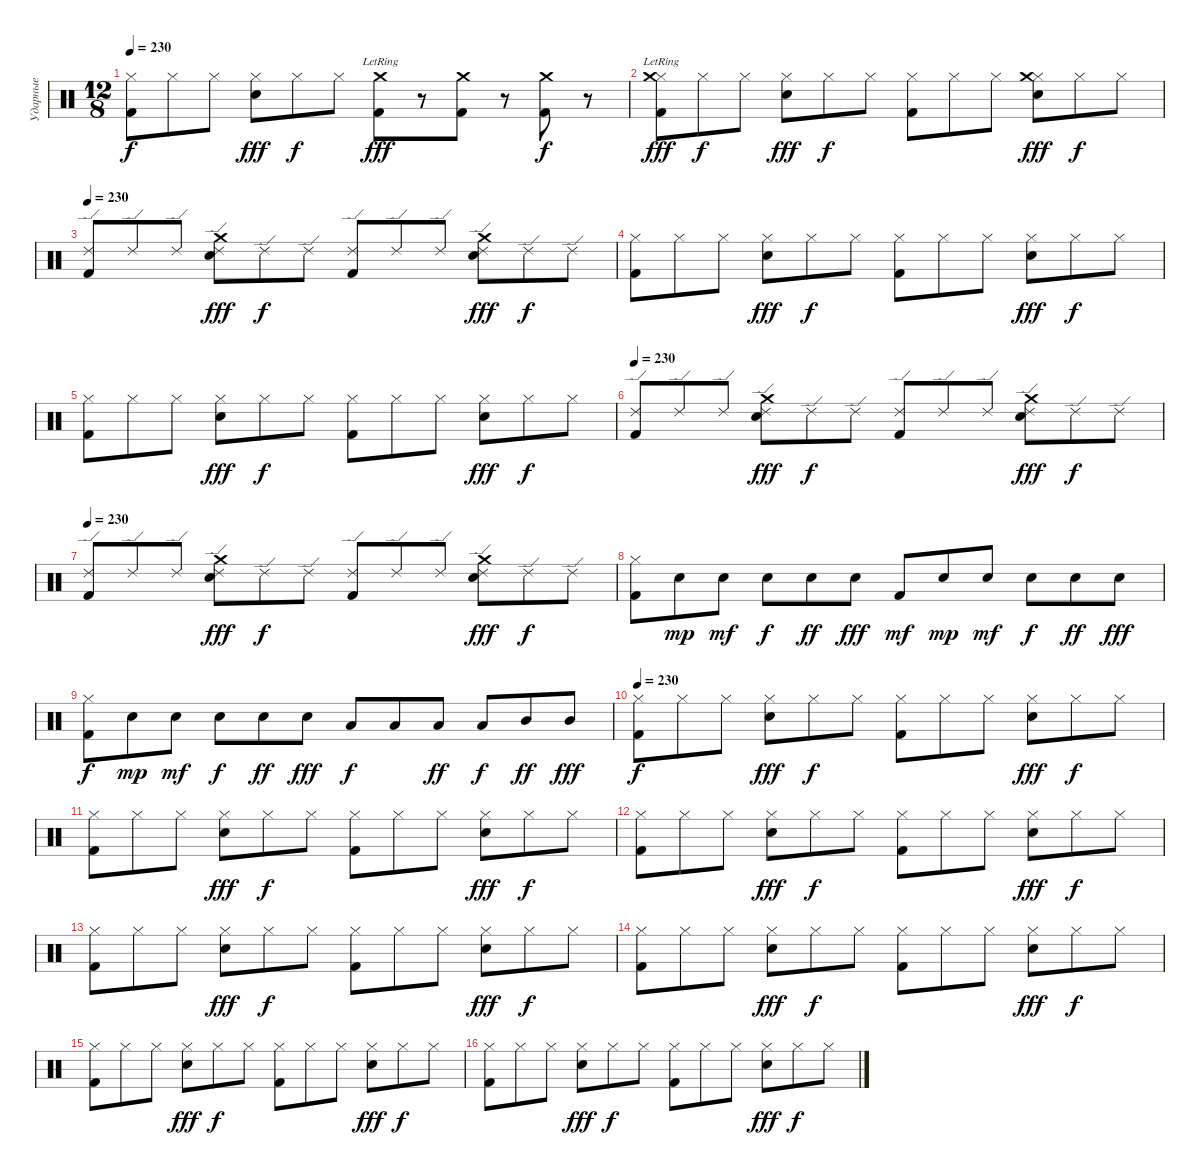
\track ("Ударные" "Ударные") {instrument percussion}
\staff {score}
\articulation defaults
\ts (12 8)
\tempo 230
\clef neutral
\ks c
("Hi-Hat (closed)" "Kick (hit) 2").8{dy f} "Hi-Hat (closed)".8 "Hi-Hat (closed)".8 ("Hi-Hat (closed)" "Snare (hit) 2").8{dy fff} "Hi-Hat (closed)".8{dy f} "Hi-Hat (closed)".8 ("Kick (hit) 2" "Crash medium (hit)"{lr}).8{dy fff} r.8 ("Kick (hit) 2" "Crash medium (hit)").8 r.8 ("Kick (hit) 2" "Crash medium (hit)").8{dy f} r.8 |
("Hi-Hat (closed)" "Crash medium (hit)"{lr} "Kick (hit) 2").8{dy fff} "Hi-Hat (closed)".8{dy f} "Hi-Hat (closed)".8 ("Hi-Hat (closed)" "Snare (hit) 2").8{dy fff} "Hi-Hat (closed)".8{dy f} "Hi-Hat (closed)".8 ("Hi-Hat (closed)" "Kick (hit) 2").8 "Hi-Hat (closed)".8 "Hi-Hat (closed)".8 ("Hi-Hat (closed)" "Snare (hit) 2" "Crash medium (hit)").8{dy fff} "Hi-Hat (closed)".8{dy f} "Hi-Hat (closed)".8 |
\tempo 230
("Ride (edge) 2" "Kick (hit) 2").8 "Ride (edge) 2".8 "Ride (edge) 2".8 ("Ride (edge) 2" "Snare (hit) 2" "Crash medium (hit)").8{dy fff} "Ride (edge) 2".8{dy f} "Ride (edge) 2".8 ("Ride (edge) 2" "Kick (hit) 2").8 "Ride (edge) 2".8 "Ride (edge) 2".8 ("Ride (edge) 2" "Snare (hit) 2" "Crash medium (hit)").8{dy fff} "Ride (edge) 2".8{dy f} "Ride (edge) 2".8 |
("Hi-Hat (closed)" "Kick (hit) 2").8 "Hi-Hat (closed)".8 "Hi-Hat (closed)".8 ("Hi-Hat (closed)" "Snare (hit) 2").8{dy fff} "Hi-Hat (closed)".8{dy f} "Hi-Hat (closed)".8 ("Hi-Hat (closed)" "Kick (hit) 2").8 "Hi-Hat (closed)".8 "Hi-Hat (closed)".8 ("Hi-Hat (closed)" "Snare (hit) 2").8{dy fff} "Hi-Hat (closed)".8{dy f} "Hi-Hat (closed)".8 |
("Hi-Hat (closed)" "Kick (hit) 2").8 "Hi-Hat (closed)".8 "Hi-Hat (closed)".8 ("Hi-Hat (closed)" "Snare (hit) 2").8{dy fff} "Hi-Hat (closed)".8{dy f} "Hi-Hat (closed)".8 ("Hi-Hat (closed)" "Kick (hit) 2").8 "Hi-Hat (closed)".8 "Hi-Hat (closed)".8 ("Hi-Hat (closed)" "Snare (hit) 2").8{dy fff} "Hi-Hat (closed)".8{dy f} "Hi-Hat (closed)".8 |
\tempo 230
("Ride (edge) 2" "Kick (hit) 2").8 "Ride (edge) 2".8 "Ride (edge) 2".8 ("Ride (edge) 2" "Snare (hit) 2" "Crash medium (hit)").8{dy fff} "Ride (edge) 2".8{dy f} "Ride (edge) 2".8 ("Ride (edge) 2" "Kick (hit) 2").8 "Ride (edge) 2".8 "Ride (edge) 2".8 ("Ride (edge) 2" "Snare (hit) 2" "Crash medium (hit)").8{dy fff} "Ride (edge) 2".8{dy f} "Ride (edge) 2".8 |
\tempo 230
("Ride (edge) 2" "Kick (hit) 2").8 "Ride (edge) 2".8 "Ride (edge) 2".8 ("Ride (edge) 2" "Snare (hit) 2" "Crash medium (hit)").8{dy fff} "Ride (edge) 2".8{dy f} "Ride (edge) 2".8 ("Ride (edge) 2" "Kick (hit) 2").8 "Ride (edge) 2".8 "Ride (edge) 2".8 ("Ride (edge) 2" "Snare (hit) 2" "Crash medium (hit)").8{dy fff} "Ride (edge) 2".8{dy f} "Ride (edge) 2".8 |
("Hi-Hat (closed)" "Kick (hit) 2").8 "Snare (hit) 2".8{dy mp} "Snare (hit) 2".8{dy mf} "Snare (hit) 2".8{dy f} "Snare (hit) 2".8{dy ff} "Snare (hit) 2".8{dy fff} "Kick (hit) 2".8{dy mf} "Snare (hit) 2".8{dy mp} "Snare (hit) 2".8{dy mf} "Snare (hit) 2".8{dy f} "Snare (hit) 2".8{dy ff} "Snare (hit) 2".8{dy fff} |
("Hi-Hat (closed)" "Kick (hit) 2").8{dy f} "Snare (hit) 2".8{dy mp} "Snare (hit) 2".8{dy mf} "Snare (hit) 2".8{dy f} "Snare (hit) 2".8{dy ff} "Snare (hit) 2".8{dy fff} "Low Floor Tom (hit)".8{dy f} "Low Floor Tom (hit)".8 "Low Tom (hit)".8{dy ff} "Low Tom (hit)".8{dy f} "Mid Tom (hit)".8{dy ff} "Mid Tom (hit)".8{dy fff} |
\tempo 230
("Hi-Hat (closed)" "Kick (hit) 2").8{dy f} "Hi-Hat (closed)".8 "Hi-Hat (closed)".8 ("Hi-Hat (closed)" "Snare (hit) 2").8{dy fff} "Hi-Hat (closed)".8{dy f} "Hi-Hat (closed)".8 ("Hi-Hat (closed)" "Kick (hit) 2").8 "Hi-Hat (closed)".8 "Hi-Hat (closed)".8 ("Hi-Hat (closed)" "Snare (hit) 2").8{dy fff} "Hi-Hat (closed)".8{dy f} "Hi-Hat (closed)".8 |
("Hi-Hat (closed)" "Kick (hit) 2").8 "Hi-Hat (closed)".8 "Hi-Hat (closed)".8 ("Hi-Hat (closed)" "Snare (hit) 2").8{dy fff} "Hi-Hat (closed)".8{dy f} "Hi-Hat (closed)".8 ("Hi-Hat (closed)" "Kick (hit) 2").8 "Hi-Hat (closed)".8 "Hi-Hat (closed)".8 ("Hi-Hat (closed)" "Snare (hit) 2").8{dy fff} "Hi-Hat (closed)".8{dy f} "Hi-Hat (closed)".8 |
("Hi-Hat (closed)" "Kick (hit) 2").8 "Hi-Hat (closed)".8 "Hi-Hat (closed)".8 ("Hi-Hat (closed)" "Snare (hit) 2").8{dy fff} "Hi-Hat (closed)".8{dy f} "Hi-Hat (closed)".8 ("Hi-Hat (closed)" "Kick (hit) 2").8 "Hi-Hat (closed)".8 "Hi-Hat (closed)".8 ("Hi-Hat (closed)" "Snare (hit) 2").8{dy fff} "Hi-Hat (closed)".8{dy f} "Hi-Hat (closed)".8 |
("Hi-Hat (closed)" "Kick (hit) 2").8 "Hi-Hat (closed)".8 "Hi-Hat (closed)".8 ("Hi-Hat (closed)" "Snare (hit) 2").8{dy fff} "Hi-Hat (closed)".8{dy f} "Hi-Hat (closed)".8 ("Hi-Hat (closed)" "Kick (hit) 2").8 "Hi-Hat (closed)".8 "Hi-Hat (closed)".8 ("Hi-Hat (closed)" "Snare (hit) 2").8{dy fff} "Hi-Hat (closed)".8{dy f} "Hi-Hat (closed)".8 |
("Hi-Hat (closed)" "Kick (hit) 2").8 "Hi-Hat (closed)".8 "Hi-Hat (closed)".8 ("Hi-Hat (closed)" "Snare (hit) 2").8{dy fff} "Hi-Hat (closed)".8{dy f} "Hi-Hat (closed)".8 ("Hi-Hat (closed)" "Kick (hit) 2").8 "Hi-Hat (closed)".8 "Hi-Hat (closed)".8 ("Hi-Hat (closed)" "Snare (hit) 2").8{dy fff} "Hi-Hat (closed)".8{dy f} "Hi-Hat (closed)".8 |
("Hi-Hat (closed)" "Kick (hit) 2").8 "Hi-Hat (closed)".8 "Hi-Hat (closed)".8 ("Hi-Hat (closed)" "Snare (hit) 2").8{dy fff} "Hi-Hat (closed)".8{dy f} "Hi-Hat (closed)".8 ("Hi-Hat (closed)" "Kick (hit) 2").8 "Hi-Hat (closed)".8 "Hi-Hat (closed)".8 ("Hi-Hat (closed)" "Snare (hit) 2").8{dy fff} "Hi-Hat (closed)".8{dy f} "Hi-Hat (closed)".8 |
("Hi-Hat (closed)" "Kick (hit) 2").8 "Hi-Hat (closed)".8 "Hi-Hat (closed)".8 ("Hi-Hat (closed)" "Snare (hit) 2").8{dy fff} "Hi-Hat (closed)".8{dy f} "Hi-Hat (closed)".8 ("Hi-Hat (closed)" "Kick (hit) 2").8 "Hi-Hat (closed)".8 "Hi-Hat (closed)".8 ("Hi-Hat (closed)" "Snare (hit) 2").8{dy fff} "Hi-Hat (closed)".8{dy f} "Hi-Hat (closed)".8
